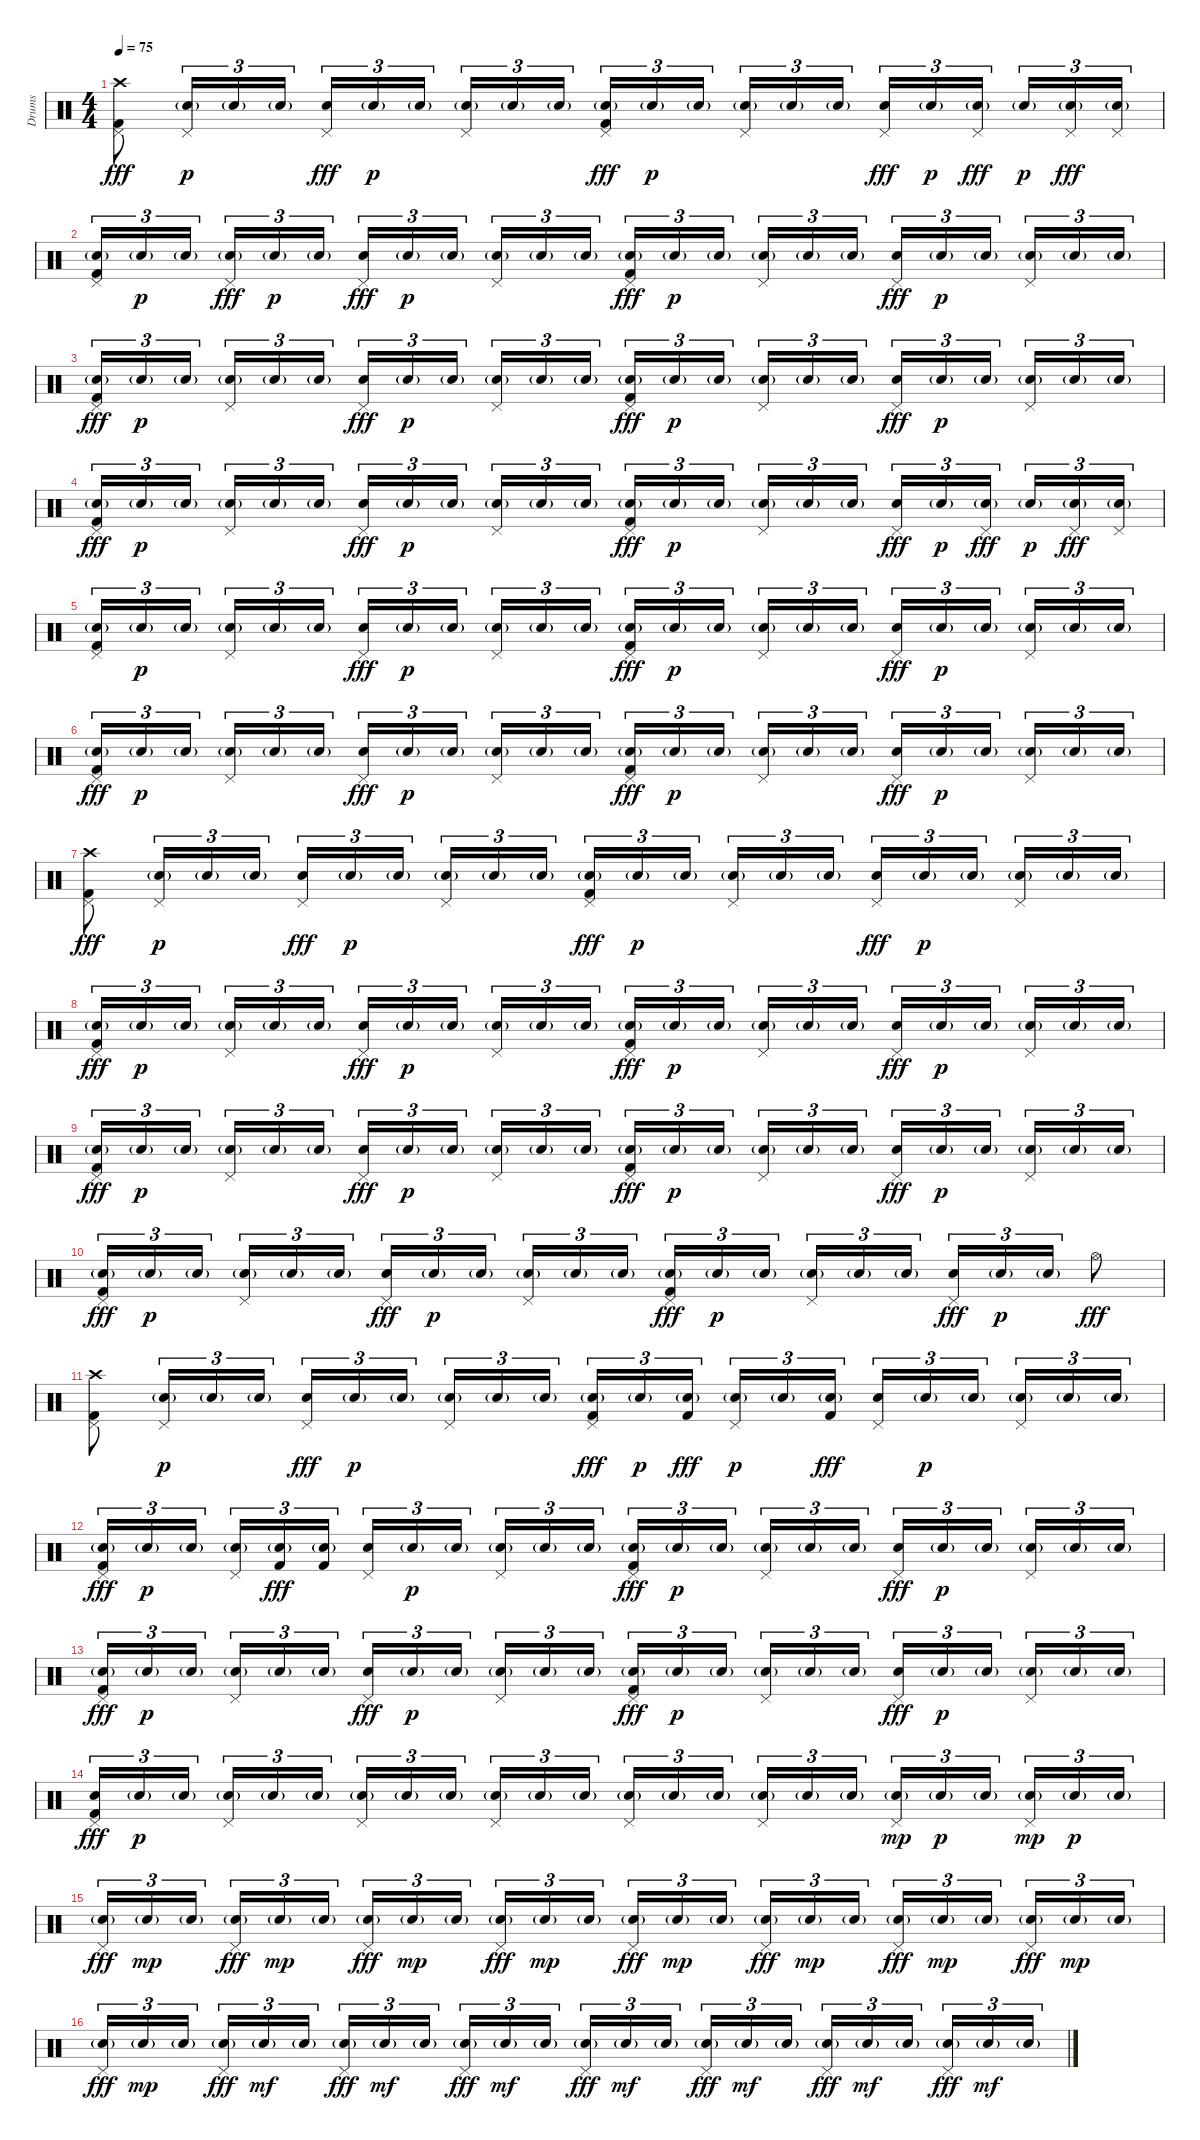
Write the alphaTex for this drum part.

\track ("Drums" "Drums") {instrument percussion}
\staff {score}
\articulation defaults
\ts (4 4)
\tempo 75
\clef neutral
\ks c
("Crash high (hit)" "Kick (hit) 2" "Pedal Hi-Hat (hit)").8{dy fff} ("Snare (hit) 2"{g} "Pedal Hi-Hat (hit)").16{tu (3 2) dy p} "Snare (hit) 2"{g}.16{tu (3 2)} "Snare (hit) 2"{g}.16{tu (3 2)} ("Electric Snare (hit)" "Pedal Hi-Hat (hit)").16{tu (3 2) dy fff} "Snare (hit) 2"{g}.16{tu (3 2) dy p} "Snare (hit) 2"{g}.16{tu (3 2)} ("Snare (hit) 2"{g} "Pedal Hi-Hat (hit)").16{tu (3 2)} "Snare (hit) 2"{g}.16{tu (3 2)} "Snare (hit) 2"{g}.16{tu (3 2)} ("Snare (hit) 2"{g} "Kick (hit) 2" "Pedal Hi-Hat (hit)").16{tu (3 2) dy fff} "Snare (hit) 2"{g}.16{tu (3 2) dy p} "Snare (hit) 2"{g}.16{tu (3 2)} ("Snare (hit) 2"{g} "Pedal Hi-Hat (hit)").16{tu (3 2)} "Snare (hit) 2"{g}.16{tu (3 2)} "Snare (hit) 2"{g}.16{tu (3 2)} ("Electric Snare (hit)" "Pedal Hi-Hat (hit)").16{tu (3 2) dy fff} "Snare (hit) 2"{g}.16{tu (3 2) dy p} ("Snare (hit) 2"{g} "Pedal Hi-Hat (hit)").16{tu (3 2) dy fff} "Snare (hit) 2"{g}.16{tu (3 2) dy p} ("Snare (hit) 2"{g} "Pedal Hi-Hat (hit)").16{tu (3 2) dy fff} ("Snare (hit) 2"{g} "Pedal Hi-Hat (hit)").16{tu (3 2)} |
("Snare (hit) 2"{g} "Kick (hit) 2" "Pedal Hi-Hat (hit)").16{tu (3 2)} "Snare (hit) 2"{g}.16{tu (3 2) dy p} "Snare (hit) 2"{g}.16{tu (3 2)} ("Snare (hit) 2"{g} "Pedal Hi-Hat (hit)").16{tu (3 2) dy fff} "Snare (hit) 2"{g}.16{tu (3 2) dy p} "Snare (hit) 2"{g}.16{tu (3 2)} ("Electric Snare (hit)" "Pedal Hi-Hat (hit)").16{tu (3 2) dy fff} "Snare (hit) 2"{g}.16{tu (3 2) dy p} "Snare (hit) 2"{g}.16{tu (3 2)} ("Snare (hit) 2"{g} "Pedal Hi-Hat (hit)").16{tu (3 2)} "Snare (hit) 2"{g}.16{tu (3 2)} "Snare (hit) 2"{g}.16{tu (3 2)} ("Snare (hit) 2"{g} "Kick (hit) 2" "Pedal Hi-Hat (hit)").16{tu (3 2) dy fff} "Snare (hit) 2"{g}.16{tu (3 2) dy p} "Snare (hit) 2"{g}.16{tu (3 2)} ("Snare (hit) 2"{g} "Pedal Hi-Hat (hit)").16{tu (3 2)} "Snare (hit) 2"{g}.16{tu (3 2)} "Snare (hit) 2"{g}.16{tu (3 2)} ("Electric Snare (hit)" "Pedal Hi-Hat (hit)").16{tu (3 2) dy fff} "Snare (hit) 2"{g}.16{tu (3 2) dy p} "Snare (hit) 2"{g}.16{tu (3 2)} ("Snare (hit) 2"{g} "Pedal Hi-Hat (hit)").16{tu (3 2)} "Snare (hit) 2"{g}.16{tu (3 2)} "Snare (hit) 2"{g}.16{tu (3 2)} |
("Snare (hit) 2"{g} "Kick (hit) 2" "Pedal Hi-Hat (hit)").16{tu (3 2) dy fff} "Snare (hit) 2"{g}.16{tu (3 2) dy p} "Snare (hit) 2"{g}.16{tu (3 2)} ("Snare (hit) 2"{g} "Pedal Hi-Hat (hit)").16{tu (3 2)} "Snare (hit) 2"{g}.16{tu (3 2)} "Snare (hit) 2"{g}.16{tu (3 2)} ("Electric Snare (hit)" "Pedal Hi-Hat (hit)").16{tu (3 2) dy fff} "Snare (hit) 2"{g}.16{tu (3 2) dy p} "Snare (hit) 2"{g}.16{tu (3 2)} ("Snare (hit) 2"{g} "Pedal Hi-Hat (hit)").16{tu (3 2)} "Snare (hit) 2"{g}.16{tu (3 2)} "Snare (hit) 2"{g}.16{tu (3 2)} ("Snare (hit) 2"{g} "Kick (hit) 2" "Pedal Hi-Hat (hit)").16{tu (3 2) dy fff} "Snare (hit) 2"{g}.16{tu (3 2) dy p} "Snare (hit) 2"{g}.16{tu (3 2)} ("Snare (hit) 2"{g} "Pedal Hi-Hat (hit)").16{tu (3 2)} "Snare (hit) 2"{g}.16{tu (3 2)} "Snare (hit) 2"{g}.16{tu (3 2)} ("Electric Snare (hit)" "Pedal Hi-Hat (hit)").16{tu (3 2) dy fff} "Snare (hit) 2"{g}.16{tu (3 2) dy p} "Snare (hit) 2"{g}.16{tu (3 2)} ("Snare (hit) 2"{g} "Pedal Hi-Hat (hit)").16{tu (3 2)} "Snare (hit) 2"{g}.16{tu (3 2)} "Snare (hit) 2"{g}.16{tu (3 2)} |
("Snare (hit) 2"{g} "Kick (hit) 2" "Pedal Hi-Hat (hit)").16{tu (3 2) dy fff} "Snare (hit) 2"{g}.16{tu (3 2) dy p} "Snare (hit) 2"{g}.16{tu (3 2)} ("Snare (hit) 2"{g} "Pedal Hi-Hat (hit)").16{tu (3 2)} "Snare (hit) 2"{g}.16{tu (3 2)} "Snare (hit) 2"{g}.16{tu (3 2)} ("Electric Snare (hit)" "Pedal Hi-Hat (hit)").16{tu (3 2) dy fff} "Snare (hit) 2"{g}.16{tu (3 2) dy p} "Snare (hit) 2"{g}.16{tu (3 2)} ("Snare (hit) 2"{g} "Pedal Hi-Hat (hit)").16{tu (3 2)} "Snare (hit) 2"{g}.16{tu (3 2)} "Snare (hit) 2"{g}.16{tu (3 2)} ("Snare (hit) 2"{g} "Kick (hit) 2" "Pedal Hi-Hat (hit)").16{tu (3 2) dy fff} "Snare (hit) 2"{g}.16{tu (3 2) dy p} "Snare (hit) 2"{g}.16{tu (3 2)} ("Snare (hit) 2"{g} "Pedal Hi-Hat (hit)").16{tu (3 2)} "Snare (hit) 2"{g}.16{tu (3 2)} "Snare (hit) 2"{g}.16{tu (3 2)} ("Electric Snare (hit)" "Pedal Hi-Hat (hit)").16{tu (3 2) dy fff} "Snare (hit) 2"{g}.16{tu (3 2) dy p} ("Snare (hit) 2"{g} "Pedal Hi-Hat (hit)").16{tu (3 2) dy fff} "Snare (hit) 2"{g}.16{tu (3 2) dy p} ("Snare (hit) 2"{g} "Pedal Hi-Hat (hit)").16{tu (3 2) dy fff} ("Snare (hit) 2"{g} "Pedal Hi-Hat (hit)").16{tu (3 2)} |
("Snare (hit) 2"{g} "Kick (hit) 2" "Pedal Hi-Hat (hit)").16{tu (3 2)} "Snare (hit) 2"{g}.16{tu (3 2) dy p} "Snare (hit) 2"{g}.16{tu (3 2)} ("Snare (hit) 2"{g} "Pedal Hi-Hat (hit)").16{tu (3 2)} "Snare (hit) 2"{g}.16{tu (3 2)} "Snare (hit) 2"{g}.16{tu (3 2)} ("Electric Snare (hit)" "Pedal Hi-Hat (hit)").16{tu (3 2) dy fff} "Snare (hit) 2"{g}.16{tu (3 2) dy p} "Snare (hit) 2"{g}.16{tu (3 2)} ("Snare (hit) 2"{g} "Pedal Hi-Hat (hit)").16{tu (3 2)} "Snare (hit) 2"{g}.16{tu (3 2)} "Snare (hit) 2"{g}.16{tu (3 2)} ("Snare (hit) 2"{g} "Kick (hit) 2" "Pedal Hi-Hat (hit)").16{tu (3 2) dy fff} "Snare (hit) 2"{g}.16{tu (3 2) dy p} "Snare (hit) 2"{g}.16{tu (3 2)} ("Snare (hit) 2"{g} "Pedal Hi-Hat (hit)").16{tu (3 2)} "Snare (hit) 2"{g}.16{tu (3 2)} "Snare (hit) 2"{g}.16{tu (3 2)} ("Electric Snare (hit)" "Pedal Hi-Hat (hit)").16{tu (3 2) dy fff} "Snare (hit) 2"{g}.16{tu (3 2) dy p} "Snare (hit) 2"{g}.16{tu (3 2)} ("Snare (hit) 2"{g} "Pedal Hi-Hat (hit)").16{tu (3 2)} "Snare (hit) 2"{g}.16{tu (3 2)} "Snare (hit) 2"{g}.16{tu (3 2)} |
("Snare (hit) 2"{g} "Kick (hit) 2" "Pedal Hi-Hat (hit)").16{tu (3 2) dy fff} "Snare (hit) 2"{g}.16{tu (3 2) dy p} "Snare (hit) 2"{g}.16{tu (3 2)} ("Snare (hit) 2"{g} "Pedal Hi-Hat (hit)").16{tu (3 2)} "Snare (hit) 2"{g}.16{tu (3 2)} "Snare (hit) 2"{g}.16{tu (3 2)} ("Electric Snare (hit)" "Pedal Hi-Hat (hit)").16{tu (3 2) dy fff} "Snare (hit) 2"{g}.16{tu (3 2) dy p} "Snare (hit) 2"{g}.16{tu (3 2)} ("Snare (hit) 2"{g} "Pedal Hi-Hat (hit)").16{tu (3 2)} "Snare (hit) 2"{g}.16{tu (3 2)} "Snare (hit) 2"{g}.16{tu (3 2)} ("Snare (hit) 2"{g} "Kick (hit) 2" "Pedal Hi-Hat (hit)").16{tu (3 2) dy fff} "Snare (hit) 2"{g}.16{tu (3 2) dy p} "Snare (hit) 2"{g}.16{tu (3 2)} ("Snare (hit) 2"{g} "Pedal Hi-Hat (hit)").16{tu (3 2)} "Snare (hit) 2"{g}.16{tu (3 2)} "Snare (hit) 2"{g}.16{tu (3 2)} ("Electric Snare (hit)" "Pedal Hi-Hat (hit)").16{tu (3 2) dy fff} "Snare (hit) 2"{g}.16{tu (3 2) dy p} "Snare (hit) 2"{g}.16{tu (3 2)} ("Snare (hit) 2"{g} "Pedal Hi-Hat (hit)").16{tu (3 2)} "Snare (hit) 2"{g}.16{tu (3 2)} "Snare (hit) 2"{g}.16{tu (3 2)} |
("Crash high (hit)" "Kick (hit) 2" "Pedal Hi-Hat (hit)").8{dy fff} ("Snare (hit) 2"{g} "Pedal Hi-Hat (hit)").16{tu (3 2) dy p} "Snare (hit) 2"{g}.16{tu (3 2)} "Snare (hit) 2"{g}.16{tu (3 2)} ("Electric Snare (hit)" "Pedal Hi-Hat (hit)").16{tu (3 2) dy fff} "Snare (hit) 2"{g}.16{tu (3 2) dy p} "Snare (hit) 2"{g}.16{tu (3 2)} ("Snare (hit) 2"{g} "Pedal Hi-Hat (hit)").16{tu (3 2)} "Snare (hit) 2"{g}.16{tu (3 2)} "Snare (hit) 2"{g}.16{tu (3 2)} ("Snare (hit) 2"{g} "Kick (hit) 2" "Pedal Hi-Hat (hit)").16{tu (3 2) dy fff} "Snare (hit) 2"{g}.16{tu (3 2) dy p} "Snare (hit) 2"{g}.16{tu (3 2)} ("Snare (hit) 2"{g} "Pedal Hi-Hat (hit)").16{tu (3 2)} "Snare (hit) 2"{g}.16{tu (3 2)} "Snare (hit) 2"{g}.16{tu (3 2)} ("Electric Snare (hit)" "Pedal Hi-Hat (hit)").16{tu (3 2) dy fff} "Snare (hit) 2"{g}.16{tu (3 2) dy p} "Snare (hit) 2"{g}.16{tu (3 2)} ("Snare (hit) 2"{g} "Pedal Hi-Hat (hit)").16{tu (3 2)} "Snare (hit) 2"{g}.16{tu (3 2)} "Snare (hit) 2"{g}.16{tu (3 2)} |
("Snare (hit) 2"{g} "Kick (hit) 2" "Pedal Hi-Hat (hit)").16{tu (3 2) dy fff} "Snare (hit) 2"{g}.16{tu (3 2) dy p} "Snare (hit) 2"{g}.16{tu (3 2)} ("Snare (hit) 2"{g} "Pedal Hi-Hat (hit)").16{tu (3 2)} "Snare (hit) 2"{g}.16{tu (3 2)} "Snare (hit) 2"{g}.16{tu (3 2)} ("Electric Snare (hit)" "Pedal Hi-Hat (hit)").16{tu (3 2) dy fff} "Snare (hit) 2"{g}.16{tu (3 2) dy p} "Snare (hit) 2"{g}.16{tu (3 2)} ("Snare (hit) 2"{g} "Pedal Hi-Hat (hit)").16{tu (3 2)} "Snare (hit) 2"{g}.16{tu (3 2)} "Snare (hit) 2"{g}.16{tu (3 2)} ("Snare (hit) 2"{g} "Kick (hit) 2" "Pedal Hi-Hat (hit)").16{tu (3 2) dy fff} "Snare (hit) 2"{g}.16{tu (3 2) dy p} "Snare (hit) 2"{g}.16{tu (3 2)} ("Snare (hit) 2"{g} "Pedal Hi-Hat (hit)").16{tu (3 2)} "Snare (hit) 2"{g}.16{tu (3 2)} "Snare (hit) 2"{g}.16{tu (3 2)} ("Electric Snare (hit)" "Pedal Hi-Hat (hit)").16{tu (3 2) dy fff} "Snare (hit) 2"{g}.16{tu (3 2) dy p} "Snare (hit) 2"{g}.16{tu (3 2)} ("Snare (hit) 2"{g} "Pedal Hi-Hat (hit)").16{tu (3 2)} "Snare (hit) 2"{g}.16{tu (3 2)} "Snare (hit) 2"{g}.16{tu (3 2)} |
("Snare (hit) 2"{g} "Kick (hit) 2" "Pedal Hi-Hat (hit)").16{tu (3 2) dy fff} "Snare (hit) 2"{g}.16{tu (3 2) dy p} "Snare (hit) 2"{g}.16{tu (3 2)} ("Snare (hit) 2"{g} "Pedal Hi-Hat (hit)").16{tu (3 2)} "Snare (hit) 2"{g}.16{tu (3 2)} "Snare (hit) 2"{g}.16{tu (3 2)} ("Electric Snare (hit)" "Pedal Hi-Hat (hit)").16{tu (3 2) dy fff} "Snare (hit) 2"{g}.16{tu (3 2) dy p} "Snare (hit) 2"{g}.16{tu (3 2)} ("Snare (hit) 2"{g} "Pedal Hi-Hat (hit)").16{tu (3 2)} "Snare (hit) 2"{g}.16{tu (3 2)} "Snare (hit) 2"{g}.16{tu (3 2)} ("Snare (hit) 2"{g} "Kick (hit) 2" "Pedal Hi-Hat (hit)").16{tu (3 2) dy fff} "Snare (hit) 2"{g}.16{tu (3 2) dy p} "Snare (hit) 2"{g}.16{tu (3 2)} ("Snare (hit) 2"{g} "Pedal Hi-Hat (hit)").16{tu (3 2)} "Snare (hit) 2"{g}.16{tu (3 2)} "Snare (hit) 2"{g}.16{tu (3 2)} ("Electric Snare (hit)" "Pedal Hi-Hat (hit)").16{tu (3 2) dy fff} "Snare (hit) 2"{g}.16{tu (3 2) dy p} "Snare (hit) 2"{g}.16{tu (3 2)} ("Snare (hit) 2"{g} "Pedal Hi-Hat (hit)").16{tu (3 2)} "Snare (hit) 2"{g}.16{tu (3 2)} "Snare (hit) 2"{g}.16{tu (3 2)} |
("Snare (hit) 2"{g} "Kick (hit) 2" "Pedal Hi-Hat (hit)").16{tu (3 2) dy fff} "Snare (hit) 2"{g}.16{tu (3 2) dy p} "Snare (hit) 2"{g}.16{tu (3 2)} ("Snare (hit) 2"{g} "Pedal Hi-Hat (hit)").16{tu (3 2)} "Snare (hit) 2"{g}.16{tu (3 2)} "Snare (hit) 2"{g}.16{tu (3 2)} ("Electric Snare (hit)" "Pedal Hi-Hat (hit)").16{tu (3 2) dy fff} "Snare (hit) 2"{g}.16{tu (3 2) dy p} "Snare (hit) 2"{g}.16{tu (3 2)} ("Snare (hit) 2"{g} "Pedal Hi-Hat (hit)").16{tu (3 2)} "Snare (hit) 2"{g}.16{tu (3 2)} "Snare (hit) 2"{g}.16{tu (3 2)} ("Snare (hit) 2"{g} "Kick (hit) 2" "Pedal Hi-Hat (hit)").16{tu (3 2) dy fff} "Snare (hit) 2"{g}.16{tu (3 2) dy p} "Snare (hit) 2"{g}.16{tu (3 2)} ("Snare (hit) 2"{g} "Pedal Hi-Hat (hit)").16{tu (3 2)} "Snare (hit) 2"{g}.16{tu (3 2)} "Snare (hit) 2"{g}.16{tu (3 2)} ("Electric Snare (hit)" "Pedal Hi-Hat (hit)").16{tu (3 2) dy fff} "Snare (hit) 2"{g}.16{tu (3 2) dy p} "Snare (hit) 2"{g}.16{tu (3 2)} "Hi-Hat (open)".8{dy fff} |
("Crash high (hit)" "Kick (hit) 2" "Pedal Hi-Hat (hit)").8 ("Snare (hit) 2"{g} "Pedal Hi-Hat (hit)").16{tu (3 2) dy p} "Snare (hit) 2"{g}.16{tu (3 2)} "Snare (hit) 2"{g}.16{tu (3 2)} ("Electric Snare (hit)" "Pedal Hi-Hat (hit)").16{tu (3 2) dy fff} "Snare (hit) 2"{g}.16{tu (3 2) dy p} "Snare (hit) 2"{g}.16{tu (3 2)} ("Snare (hit) 2"{g} "Pedal Hi-Hat (hit)").16{tu (3 2)} "Snare (hit) 2"{g}.16{tu (3 2)} "Snare (hit) 2"{g}.16{tu (3 2)} ("Snare (hit) 2"{g} "Kick (hit) 2" "Pedal Hi-Hat (hit)").16{tu (3 2) dy fff} "Snare (hit) 2"{g}.16{tu (3 2) dy p} ("Snare (hit) 2"{g} "Kick (hit) 2").16{tu (3 2) dy fff} ("Snare (hit) 2"{g} "Pedal Hi-Hat (hit)").16{tu (3 2) dy p} "Snare (hit) 2"{g}.16{tu (3 2)} ("Snare (hit) 2"{g} "Kick (hit) 2").16{tu (3 2) dy fff} ("Electric Snare (hit)" "Pedal Hi-Hat (hit)").16{tu (3 2)} "Snare (hit) 2"{g}.16{tu (3 2) dy p} "Snare (hit) 2"{g}.16{tu (3 2)} ("Snare (hit) 2"{g} "Pedal Hi-Hat (hit)").16{tu (3 2)} "Snare (hit) 2"{g}.16{tu (3 2)} "Snare (hit) 2"{g}.16{tu (3 2)} |
("Snare (hit) 2"{g} "Kick (hit) 2" "Pedal Hi-Hat (hit)").16{tu (3 2) dy fff} "Snare (hit) 2"{g}.16{tu (3 2) dy p} "Snare (hit) 2"{g}.16{tu (3 2)} ("Snare (hit) 2"{g} "Pedal Hi-Hat (hit)").16{tu (3 2)} ("Snare (hit) 2"{g} "Kick (hit) 2").16{tu (3 2) dy fff} ("Snare (hit) 2"{g} "Kick (hit) 2").16{tu (3 2)} ("Electric Snare (hit)" "Pedal Hi-Hat (hit)").16{tu (3 2)} "Snare (hit) 2"{g}.16{tu (3 2) dy p} "Snare (hit) 2"{g}.16{tu (3 2)} ("Snare (hit) 2"{g} "Pedal Hi-Hat (hit)").16{tu (3 2)} "Snare (hit) 2"{g}.16{tu (3 2)} "Snare (hit) 2"{g}.16{tu (3 2)} ("Snare (hit) 2"{g} "Kick (hit) 2" "Pedal Hi-Hat (hit)").16{tu (3 2) dy fff} "Snare (hit) 2"{g}.16{tu (3 2) dy p} "Snare (hit) 2"{g}.16{tu (3 2)} ("Snare (hit) 2"{g} "Pedal Hi-Hat (hit)").16{tu (3 2)} "Snare (hit) 2"{g}.16{tu (3 2)} "Snare (hit) 2"{g}.16{tu (3 2)} ("Electric Snare (hit)" "Pedal Hi-Hat (hit)").16{tu (3 2) dy fff} "Snare (hit) 2"{g}.16{tu (3 2) dy p} "Snare (hit) 2"{g}.16{tu (3 2)} ("Snare (hit) 2"{g} "Pedal Hi-Hat (hit)").16{tu (3 2)} "Snare (hit) 2"{g}.16{tu (3 2)} "Snare (hit) 2"{g}.16{tu (3 2)} |
("Snare (hit) 2"{g} "Kick (hit) 2" "Pedal Hi-Hat (hit)").16{tu (3 2) dy fff} "Snare (hit) 2"{g}.16{tu (3 2) dy p} "Snare (hit) 2"{g}.16{tu (3 2)} ("Snare (hit) 2"{g} "Pedal Hi-Hat (hit)").16{tu (3 2)} "Snare (hit) 2"{g}.16{tu (3 2)} "Snare (hit) 2"{g}.16{tu (3 2)} ("Electric Snare (hit)" "Pedal Hi-Hat (hit)").16{tu (3 2) dy fff} "Snare (hit) 2"{g}.16{tu (3 2) dy p} "Snare (hit) 2"{g}.16{tu (3 2)} ("Snare (hit) 2"{g} "Pedal Hi-Hat (hit)").16{tu (3 2)} "Snare (hit) 2"{g}.16{tu (3 2)} "Snare (hit) 2"{g}.16{tu (3 2)} ("Snare (hit) 2"{g} "Kick (hit) 2" "Pedal Hi-Hat (hit)").16{tu (3 2) dy fff} "Snare (hit) 2"{g}.16{tu (3 2) dy p} "Snare (hit) 2"{g}.16{tu (3 2)} ("Snare (hit) 2"{g} "Pedal Hi-Hat (hit)").16{tu (3 2)} "Snare (hit) 2"{g}.16{tu (3 2)} "Snare (hit) 2"{g}.16{tu (3 2)} ("Electric Snare (hit)" "Pedal Hi-Hat (hit)").16{tu (3 2) dy fff} "Snare (hit) 2"{g}.16{tu (3 2) dy p} "Snare (hit) 2"{g}.16{tu (3 2)} ("Snare (hit) 2"{g} "Pedal Hi-Hat (hit)").16{tu (3 2)} "Snare (hit) 2"{g}.16{tu (3 2)} "Snare (hit) 2"{g}.16{tu (3 2)} |
("Electric Snare (hit)" "Kick (hit) 2" "Pedal Hi-Hat (hit)").16{tu (3 2) dy fff} "Snare (hit) 2"{g}.16{tu (3 2) dy p} "Snare (hit) 2"{g}.16{tu (3 2)} ("Snare (hit) 2"{g} "Pedal Hi-Hat (hit)").16{tu (3 2)} "Snare (hit) 2"{g}.16{tu (3 2)} "Snare (hit) 2"{g}.16{tu (3 2)} ("Snare (hit) 2"{g} "Pedal Hi-Hat (hit)").16{tu (3 2)} "Snare (hit) 2"{g}.16{tu (3 2)} "Snare (hit) 2"{g}.16{tu (3 2)} ("Snare (hit) 2"{g} "Pedal Hi-Hat (hit)").16{tu (3 2)} "Snare (hit) 2"{g}.16{tu (3 2)} "Snare (hit) 2"{g}.16{tu (3 2)} ("Snare (hit) 2"{g} "Pedal Hi-Hat (hit)").16{tu (3 2)} "Snare (hit) 2"{g}.16{tu (3 2)} "Snare (hit) 2"{g}.16{tu (3 2)} ("Snare (hit) 2"{g} "Pedal Hi-Hat (hit)").16{tu (3 2)} "Snare (hit) 2"{g}.16{tu (3 2)} "Snare (hit) 2"{g}.16{tu (3 2)} ("Snare (hit) 2"{g} "Pedal Hi-Hat (hit)").16{tu (3 2) dy mp} "Snare (hit) 2"{g}.16{tu (3 2) dy p} "Snare (hit) 2"{g}.16{tu (3 2)} ("Snare (hit) 2"{g} "Pedal Hi-Hat (hit)").16{tu (3 2) dy mp} "Snare (hit) 2"{g}.16{tu (3 2) dy p} "Snare (hit) 2"{g}.16{tu (3 2)} |
("Snare (hit) 2"{g} "Pedal Hi-Hat (hit)").16{tu (3 2) dy fff} "Snare (hit) 2"{g}.16{tu (3 2) dy mp} "Snare (hit) 2"{g}.16{tu (3 2)} ("Snare (hit) 2"{g} "Pedal Hi-Hat (hit)").16{tu (3 2) dy fff} "Snare (hit) 2"{g}.16{tu (3 2) dy mp} "Snare (hit) 2"{g}.16{tu (3 2)} ("Snare (hit) 2"{g} "Pedal Hi-Hat (hit)").16{tu (3 2) dy fff} "Snare (hit) 2"{g}.16{tu (3 2) dy mp} "Snare (hit) 2"{g}.16{tu (3 2)} ("Snare (hit) 2"{g} "Pedal Hi-Hat (hit)").16{tu (3 2) dy fff} "Snare (hit) 2"{g}.16{tu (3 2) dy mp} "Snare (hit) 2"{g}.16{tu (3 2)} ("Snare (hit) 2"{g} "Pedal Hi-Hat (hit)").16{tu (3 2) dy fff} "Snare (hit) 2"{g}.16{tu (3 2) dy mp} "Snare (hit) 2"{g}.16{tu (3 2)} ("Snare (hit) 2"{g} "Pedal Hi-Hat (hit)").16{tu (3 2) dy fff} "Snare (hit) 2"{g}.16{tu (3 2) dy mp} "Snare (hit) 2"{g}.16{tu (3 2)} ("Snare (hit) 2"{g} "Pedal Hi-Hat (hit)").16{tu (3 2) dy fff} "Snare (hit) 2"{g}.16{tu (3 2) dy mp} "Snare (hit) 2"{g}.16{tu (3 2)} ("Snare (hit) 2"{g} "Pedal Hi-Hat (hit)").16{tu (3 2) dy fff} "Snare (hit) 2"{g}.16{tu (3 2) dy mp} "Snare (hit) 2"{g}.16{tu (3 2)} |
("Snare (hit) 2"{g} "Pedal Hi-Hat (hit)").16{tu (3 2) dy fff} "Snare (hit) 2"{g}.16{tu (3 2) dy mp} "Snare (hit) 2"{g}.16{tu (3 2)} ("Snare (hit) 2"{g} "Pedal Hi-Hat (hit)").16{tu (3 2) dy fff} "Snare (hit) 2"{g}.16{tu (3 2) dy mf} "Snare (hit) 2"{g}.16{tu (3 2)} ("Snare (hit) 2"{g} "Pedal Hi-Hat (hit)").16{tu (3 2) dy fff} "Snare (hit) 2"{g}.16{tu (3 2) dy mf} "Snare (hit) 2"{g}.16{tu (3 2)} ("Snare (hit) 2"{g} "Pedal Hi-Hat (hit)").16{tu (3 2) dy fff} "Snare (hit) 2"{g}.16{tu (3 2) dy mf} "Snare (hit) 2"{g}.16{tu (3 2)} ("Snare (hit) 2"{g} "Pedal Hi-Hat (hit)").16{tu (3 2) dy fff} "Snare (hit) 2"{g}.16{tu (3 2) dy mf} "Snare (hit) 2"{g}.16{tu (3 2)} ("Snare (hit) 2"{g} "Pedal Hi-Hat (hit)").16{tu (3 2) dy fff} "Snare (hit) 2"{g}.16{tu (3 2) dy mf} "Snare (hit) 2"{g}.16{tu (3 2)} ("Snare (hit) 2"{g} "Pedal Hi-Hat (hit)").16{tu (3 2) dy fff} "Snare (hit) 2"{g}.16{tu (3 2) dy mf} "Snare (hit) 2"{g}.16{tu (3 2)} ("Snare (hit) 2"{g} "Pedal Hi-Hat (hit)").16{tu (3 2) dy fff} "Snare (hit) 2"{g}.16{tu (3 2) dy mf} "Snare (hit) 2"{g}.16{tu (3 2)}
